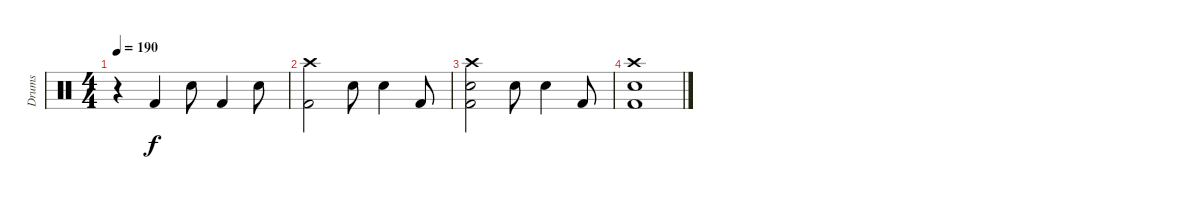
\track ("Drums" "Drums") {instrument percussion}
\staff {score}
\articulation defaults
\ts (4 4)
\tempo 190
\clef neutral
\ks c
r.4{dy f} "Kick (hit) 2".4 "Snare (hit) 2".8 "Kick (hit) 2".4 "Snare (hit) 2".8 |
("Crash high (hit)" "Kick (hit) 2").2 "Snare (hit) 2".8 "Snare (hit) 2".4 "Kick (hit) 2".8 |
("Crash high (hit)" "Snare (hit) 2" "Kick (hit) 2").2 "Snare (hit) 2".8 "Snare (hit) 2".4 "Kick (hit) 2".8 |
("Crash high (hit)" "Snare (hit) 2" "Kick (hit) 2").1
